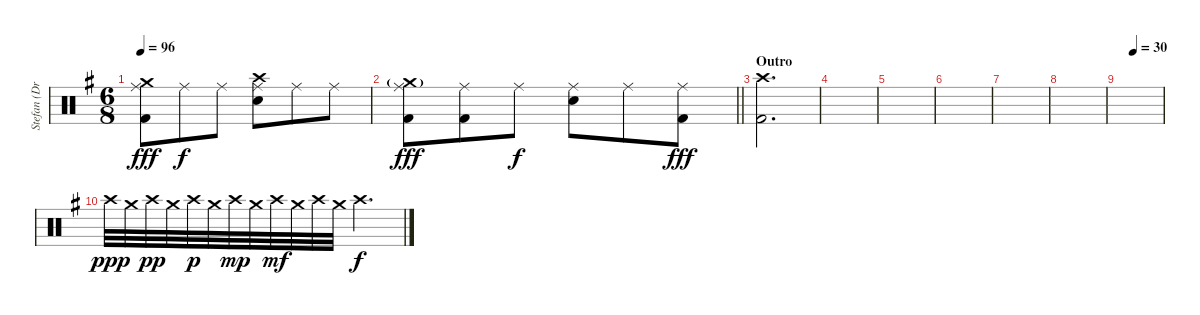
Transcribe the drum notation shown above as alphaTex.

\track ("Stefan (Drums)" "Stefan (Dr") {instrument percussion}
\staff {score}
\articulation defaults
\ts (6 8)
\tempo 96
\clef neutral
\ks g
("Ride (middle)" "Crash medium (hit)" "Kick (hit) 2").8{dy fff} "Ride (middle)".8{dy f} "Ride (middle)".8 ("Ride (middle)" "Crash high (hit)" "Snare (hit) 2").8 "Ride (middle)".8 "Ride (middle)".8 |
\barLineRight lightlight
("Ride (middle)" "Crash medium (hit)"{g} "Kick (hit) 2").8{dy fff} ("Ride (middle)" "Kick (hit) 2").8 "Ride (middle)".8{dy f} ("Ride (middle)" "Snare (hit) 2").8 "Ride (middle)".8 ("Ride (middle)" "Kick (hit) 2").8{dy fff} |
\section ("" "Outro")
("Crash high (hit)" "Kick (hit) 2").2{d} |
|
|
|
|
|
\tempo (30 0.3333333333333333)
|
"Crash high (hit)".32{dy ppp} "Crash medium (hit)".32 "Crash high (hit)".32{dy pp} "Crash medium (hit)".32 "Crash high (hit)".32{dy p} "Crash medium (hit)".32 "Crash high (hit)".32{dy mp} "Crash medium (hit)".32 "Crash high (hit)".32{dy mf} "Crash medium (hit)".32 "Crash high (hit)".32 "Crash medium (hit)".32 "Crash high (hit)".4{d dy f}
